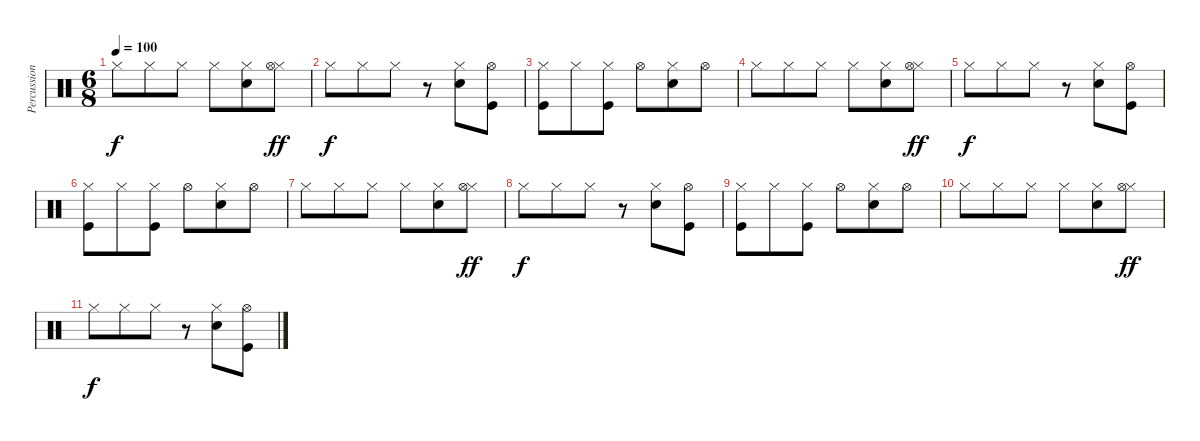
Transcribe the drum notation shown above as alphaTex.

\track ("Percussions" "Percussion") {instrument percussion}
\staff {score}
\articulation defaults
\ts (6 8)
\tempo 100
\clef neutral
\ks c "Hi-Hat (closed)".8{dy f} "Hi-Hat (closed)".8 "Hi-Hat (closed)".8 "Hi-Hat (closed)".8
("Snare (hit) 2" "Hi-Hat (closed)").8 ("Hi-Hat (closed)" "Hi-Hat (open)").8{dy ff} |
"Hi-Hat (closed)".8{dy f} "Hi-Hat (closed)".8 "Hi-Hat (closed)".8 r.8 ("Snare (hit) 2" "Hi-Hat (closed)").8 ("Kick (hit)" "Hi-Hat (open)").8 |
("Kick (hit)" "Hi-Hat (closed)").8 "Hi-Hat (closed)".8 ("Kick (hit)" "Hi-Hat (closed)").8 "Hi-Hat (open)".8 ("Snare (hit) 2" "Hi-Hat (closed)").8 "Hi-Hat (open)".8 |
"Hi-Hat (closed)".8 "Hi-Hat (closed)".8 "Hi-Hat (closed)".8 "Hi-Hat (closed)".8 ("Snare (hit) 2" "Hi-Hat (closed)").8 ("Hi-Hat (closed)" "Hi-Hat (open)").8{dy ff} |
"Hi-Hat (closed)".8{dy f} "Hi-Hat (closed)".8 "Hi-Hat (closed)".8 r.8 ("Snare (hit) 2" "Hi-Hat (closed)").8 ("Kick (hit)" "Hi-Hat (open)").8 |
("Kick (hit)" "Hi-Hat (closed)").8 "Hi-Hat (closed)".8 ("Kick (hit)" "Hi-Hat (closed)").8 "Hi-Hat (open)".8 ("Snare (hit) 2" "Hi-Hat (closed)").8 "Hi-Hat (open)".8 |
"Hi-Hat (closed)".8 "Hi-Hat (closed)".8 "Hi-Hat (closed)".8 "Hi-Hat (closed)".8 ("Snare (hit) 2" "Hi-Hat (closed)").8 ("Hi-Hat (closed)" "Hi-Hat (open)").8{dy ff} |
"Hi-Hat (closed)".8{dy f} "Hi-Hat (closed)".8 "Hi-Hat (closed)".8 r.8 ("Snare (hit) 2" "Hi-Hat (closed)").8 ("Kick (hit)" "Hi-Hat (open)").8 |
("Kick (hit)" "Hi-Hat (closed)").8 "Hi-Hat (closed)".8 ("Kick (hit)" "Hi-Hat (closed)").8 "Hi-Hat (open)".8 ("Snare (hit) 2" "Hi-Hat (closed)").8 "Hi-Hat (open)".8 |
"Hi-Hat (closed)".8 "Hi-Hat (closed)".8 "Hi-Hat (closed)".8 "Hi-Hat (closed)".8 ("Snare (hit) 2" "Hi-Hat (closed)").8 ("Hi-Hat (closed)" "Hi-Hat (open)").8{dy ff} |
"Hi-Hat (closed)".8{dy f} "Hi-Hat (closed)".8 "Hi-Hat (closed)".8 r.8 ("Snare (hit) 2" "Hi-Hat (closed)").8 ("Kick (hit)" "Hi-Hat (open)").8
